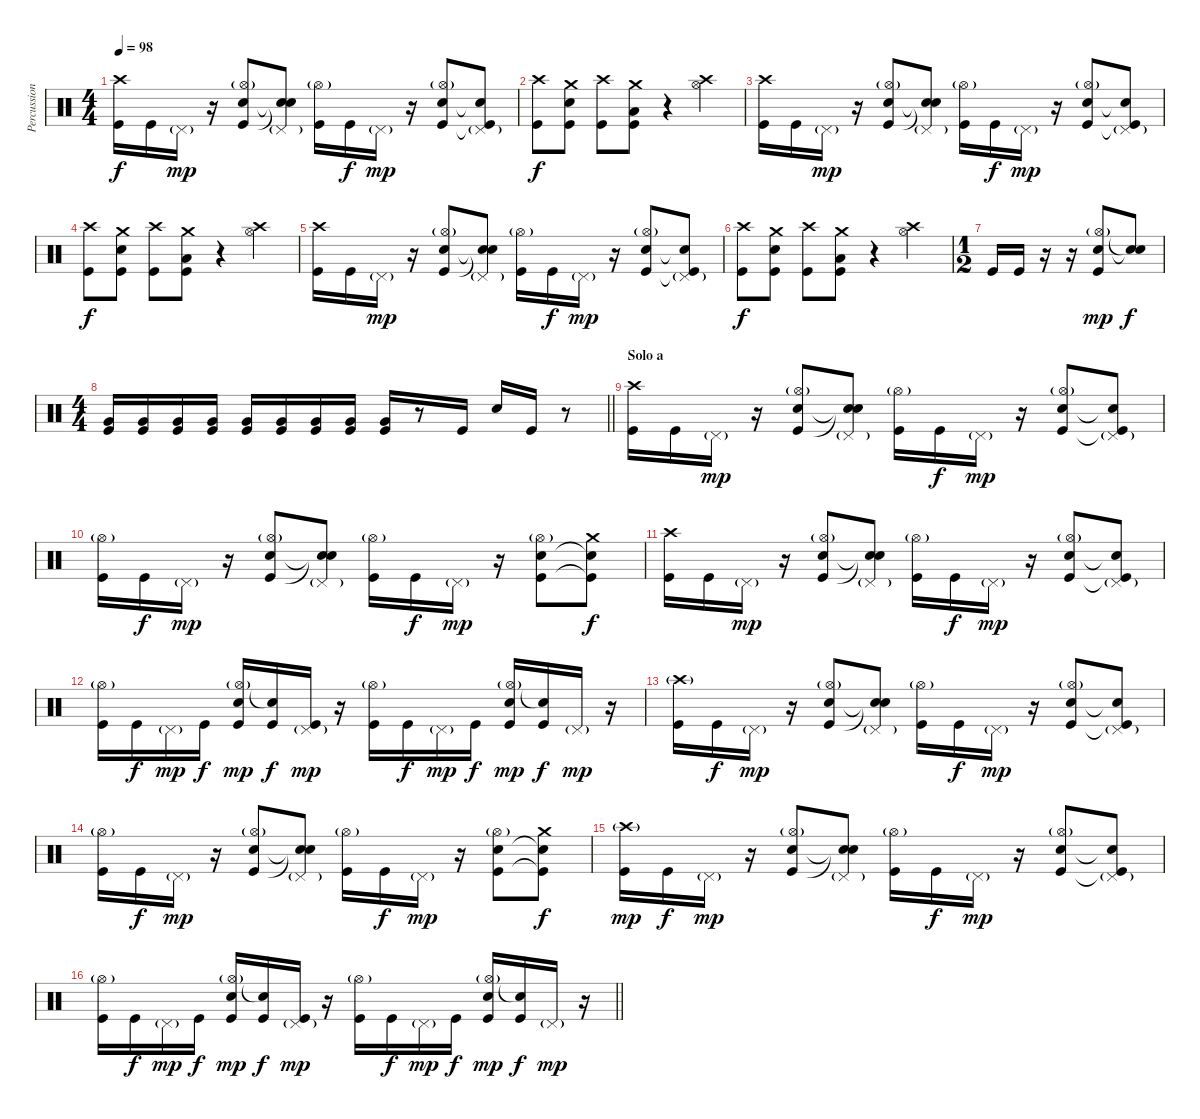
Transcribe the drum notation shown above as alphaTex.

\track ("Percussion" "Percussion") {instrument percussion}
\staff {score}
\articulation defaults
\ts (4 4)
\tempo 98
\clef neutral
\ks c
("Crash high (hit)" "Kick (hit)").16{dy f} "Kick (hit)".16 "Pedal Hi-Hat (hit)"{g}.16{dy mp} r.16 ("Hi-Hat (open)"{g} "Snare (hit) 2" "Kick (hit)").8 ("Pedal Hi-Hat (hit)"{g} "Snare (hit)"{t} "Snare (hit)"{t}).8 ("Hi-Hat (open)"{g} "Kick (hit)").16 "Kick (hit)".16{dy f} "Pedal Hi-Hat (hit)"{g}.16{dy mp} r.16 ("Hi-Hat (open)"{g} "Snare (hit) 2" "Kick (hit)").8 ("Pedal Hi-Hat (hit)"{g} "Snare (hit)"{t} "Kick (hit)"{t}).8 |
("Crash high (hit)" "Kick (hit)").8{dy f} ("Crash medium (hit)" "Snare (hit) 2" "Kick (hit)").8 ("Crash high (hit)" "Kick (hit)").8 ("Crash medium (hit)" "Low Floor Tom (hit)" "Kick (hit)").8 r.4 ("Crash high (hit)" "Hi-Hat (open)").4 |
("Crash high (hit)" "Kick (hit)").16 "Kick (hit)".16 "Pedal Hi-Hat (hit)"{g}.16{dy mp} r.16 ("Hi-Hat (open)"{g} "Snare (hit) 2" "Kick (hit)").8 ("Pedal Hi-Hat (hit)"{g} "Snare (hit)"{t} "Snare (hit)"{t}).8 ("Hi-Hat (open)"{g} "Kick (hit)").16 "Kick (hit)".16{dy f} "Pedal Hi-Hat (hit)"{g}.16{dy mp} r.16 ("Hi-Hat (open)"{g} "Snare (hit) 2" "Kick (hit)").8 ("Pedal Hi-Hat (hit)"{g} "Snare (hit)"{t} "Kick (hit)"{t}).8 |
("Crash high (hit)" "Kick (hit)").8{dy f} ("Crash medium (hit)" "Snare (hit) 2" "Kick (hit)").8 ("Crash high (hit)" "Kick (hit)").8 ("Crash medium (hit)" "Low Floor Tom (hit)" "Kick (hit)").8 r.4 ("Crash high (hit)" "Hi-Hat (open)").4 |
("Crash high (hit)" "Kick (hit)").16 "Kick (hit)".16 "Pedal Hi-Hat (hit)"{g}.16{dy mp} r.16 ("Hi-Hat (open)"{g} "Snare (hit) 2" "Kick (hit)").8 ("Pedal Hi-Hat (hit)"{g} "Snare (hit)"{t} "Snare (hit)"{t}).8 ("Hi-Hat (open)"{g} "Kick (hit)").16 "Kick (hit)".16{dy f} "Pedal Hi-Hat (hit)"{g}.16{dy mp} r.16 ("Hi-Hat (open)"{g} "Snare (hit) 2" "Kick (hit)").8 ("Pedal Hi-Hat (hit)"{g} "Snare (hit)"{t} "Kick (hit)"{t}).8 |
("Crash high (hit)" "Kick (hit)").8{dy f} ("Crash medium (hit)" "Snare (hit) 2" "Kick (hit)").8 ("Crash high (hit)" "Kick (hit)").8 ("Crash medium (hit)" "Low Floor Tom (hit)" "Kick (hit)").8 r.4 ("Crash high (hit)" "Hi-Hat (open)").4 |
\ts (1 2)
"Kick (hit)".16 "Kick (hit)".16 r.16 r.16 ("Hi-Hat (open)"{g} "Snare (hit) 2" "Kick (hit)").8{dy mp} ("Snare (hit)"{t} "Snare (hit)"{t}).8{dy f} |
\ts (4 4)
\barLineRight lightlight
("Very Low Tom (hit)" "Kick (hit)").16 ("Very Low Tom (hit)" "Kick (hit)").16 ("Very Low Tom (hit)" "Kick (hit)").16 ("Very Low Tom (hit)" "Kick (hit)").16 ("Very Low Tom (hit)" "Kick (hit)").16 ("Very Low Tom (hit)" "Kick (hit)").16 ("Very Low Tom (hit)" "Kick (hit)").16 ("Very Low Tom (hit)" "Kick (hit)").16 ("Very Low Tom (hit)" "Kick (hit)").16 r.8 "Kick (hit)".16 "Snare (hit) 2".16 "Kick (hit)".16 r.8 |
\section ("" "Solo a")
("Crash high (hit)" "Kick (hit)").16 "Kick (hit)".16 "Pedal Hi-Hat (hit)"{g}.16{dy mp} r.16 ("Hi-Hat (open)"{g} "Snare (hit) 2" "Kick (hit)").8 ("Pedal Hi-Hat (hit)"{g} "Snare (hit)"{t} "Snare (hit)"{t}).8 ("Hi-Hat (open)"{g} "Kick (hit)").16 "Kick (hit)".16{dy f} "Pedal Hi-Hat (hit)"{g}.16{dy mp} r.16 ("Hi-Hat (open)"{g} "Snare (hit) 2" "Kick (hit)").8 ("Pedal Hi-Hat (hit)"{g} "Snare (hit)"{t} "Kick (hit)"{t}).8 |
("Hi-Hat (open)"{g} "Kick (hit)").16 "Kick (hit)".16{dy f} "Pedal Hi-Hat (hit)"{g}.16{dy mp} r.16 ("Hi-Hat (open)"{g} "Snare (hit) 2" "Kick (hit)").8 ("Pedal Hi-Hat (hit)"{g} "Snare (hit)"{t} "Snare (hit)"{t}).8 ("Hi-Hat (open)"{g} "Kick (hit)").16 "Kick (hit)".16{dy f} "Pedal Hi-Hat (hit)"{g}.16{dy mp} r.16 ("Hi-Hat (open)"{g} "Snare (hit) 2" "Kick (hit)").8 ("Crash medium (hit)" "Snare (hit)"{t} "Kick (hit)"{t}).8{dy f} |
("Crash high (hit)" "Kick (hit)").16 "Kick (hit)".16 "Pedal Hi-Hat (hit)"{g}.16{dy mp} r.16 ("Hi-Hat (open)"{g} "Snare (hit) 2" "Kick (hit)").8 ("Pedal Hi-Hat (hit)"{g} "Snare (hit)"{t} "Snare (hit)"{t}).8 ("Hi-Hat (open)"{g} "Kick (hit)").16 "Kick (hit)".16{dy f} "Pedal Hi-Hat (hit)"{g}.16{dy mp} r.16 ("Hi-Hat (open)"{g} "Snare (hit) 2" "Kick (hit)").8 ("Pedal Hi-Hat (hit)"{g} "Snare (hit)"{t} "Kick (hit)"{t}).8 |
("Hi-Hat (open)"{g} "Kick (hit)").16 "Kick (hit)".16{dy f} "Pedal Hi-Hat (hit)"{g}.16{dy mp} "Kick (hit)".16{dy f} ("Hi-Hat (open)"{g} "Snare (hit) 2" "Kick (hit)").16{dy mp} ("Snare (hit)"{t} "Kick (hit)").16{dy f} ("Pedal Hi-Hat (hit)"{g} "Kick (hit)").16{dy mp} r.16 ("Hi-Hat (open)"{g} "Kick (hit)").16 "Kick (hit)".16{dy f} "Pedal Hi-Hat (hit)"{g}.16{dy mp} "Kick (hit)".16{dy f} ("Hi-Hat (open)"{g} "Snare (hit) 2" "Kick (hit)").16{dy mp} ("Snare (hit)"{t} "Kick (hit)").16{dy f} "Pedal Hi-Hat (hit)"{g}.16{dy mp} r.16 |
("Crash high (hit)"{g} "Kick (hit)").16 "Kick (hit)".16{dy f} "Pedal Hi-Hat (hit)"{g}.16{dy mp} r.16 ("Hi-Hat (open)"{g} "Snare (hit) 2" "Kick (hit)").8 ("Pedal Hi-Hat (hit)"{g} "Snare (hit)"{t} "Snare (hit)"{t}).8 ("Hi-Hat (open)"{g} "Kick (hit)").16 "Kick (hit)".16{dy f} "Pedal Hi-Hat (hit)"{g}.16{dy mp} r.16 ("Hi-Hat (open)"{g} "Snare (hit) 2" "Kick (hit)").8 ("Pedal Hi-Hat (hit)"{g} "Snare (hit)"{t} "Kick (hit)"{t}).8 |
("Hi-Hat (open)"{g} "Kick (hit)").16 "Kick (hit)".16{dy f} "Pedal Hi-Hat (hit)"{g}.16{dy mp} r.16 ("Hi-Hat (open)"{g} "Snare (hit) 2" "Kick (hit)").8 ("Pedal Hi-Hat (hit)"{g} "Snare (hit)"{t} "Snare (hit)"{t}).8 ("Hi-Hat (open)"{g} "Kick (hit)").16 "Kick (hit)".16{dy f} "Pedal Hi-Hat (hit)"{g}.16{dy mp} r.16 ("Hi-Hat (open)"{g} "Snare (hit) 2" "Kick (hit)").8 ("Crash medium (hit)" "Snare (hit)"{t} "Kick (hit)"{t}).8{dy f} |
("Crash high (hit)"{g} "Kick (hit)").16{dy mp} "Kick (hit)".16{dy f} "Pedal Hi-Hat (hit)"{g}.16{dy mp} r.16 ("Hi-Hat (open)"{g} "Snare (hit) 2" "Kick (hit)").8 ("Pedal Hi-Hat (hit)"{g} "Snare (hit)"{t} "Snare (hit)"{t}).8 ("Hi-Hat (open)"{g} "Kick (hit)").16 "Kick (hit)".16{dy f} "Pedal Hi-Hat (hit)"{g}.16{dy mp} r.16 ("Hi-Hat (open)"{g} "Snare (hit) 2" "Kick (hit)").8 ("Pedal Hi-Hat (hit)"{g} "Snare (hit)"{t} "Kick (hit)"{t}).8 |
\barLineRight lightlight
("Hi-Hat (open)"{g} "Kick (hit)").16 "Kick (hit)".16{dy f} "Pedal Hi-Hat (hit)"{g}.16{dy mp} "Kick (hit)".16{dy f} ("Hi-Hat (open)"{g} "Snare (hit) 2" "Kick (hit)").16{dy mp} ("Snare (hit)"{t} "Kick (hit)").16{dy f} ("Pedal Hi-Hat (hit)"{g} "Kick (hit)").16{dy mp} r.16 ("Hi-Hat (open)"{g} "Kick (hit)").16 "Kick (hit)".16{dy f} "Pedal Hi-Hat (hit)"{g}.16{dy mp} "Kick (hit)".16{dy f} ("Hi-Hat (open)"{g} "Snare (hit) 2" "Kick (hit)").16{dy mp} ("Snare (hit)"{t} "Kick (hit)").16{dy f} "Pedal Hi-Hat (hit)"{g}.16{dy mp} r.16
